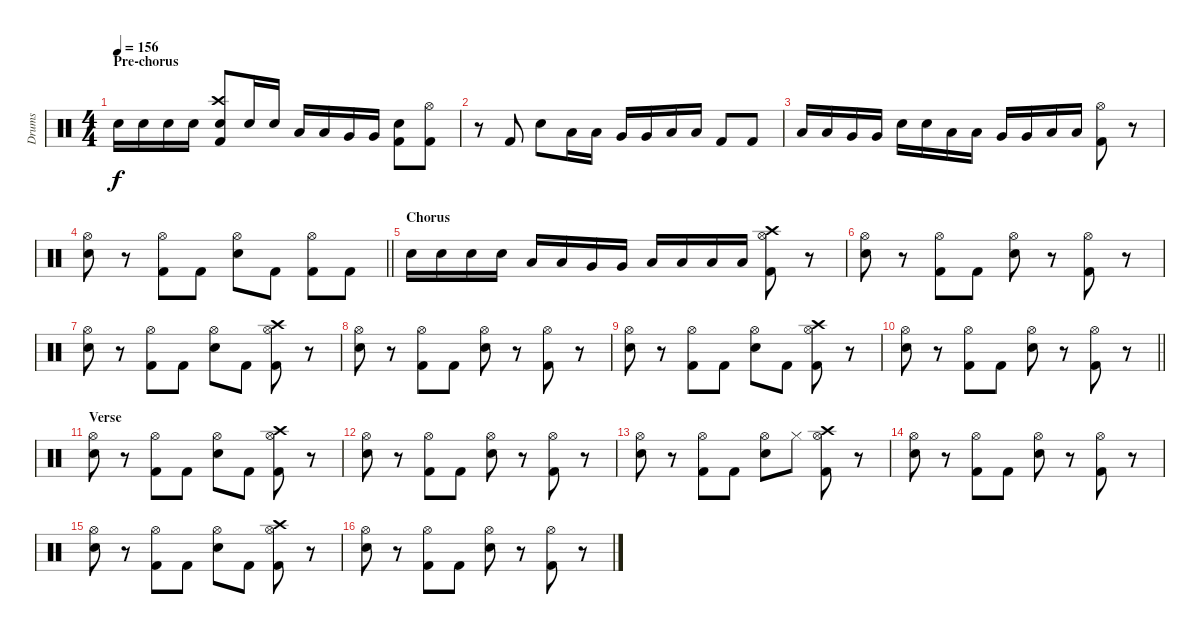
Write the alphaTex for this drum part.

\track ("Drums" "Drums") {instrument percussion}
\staff {score}
\articulation defaults
\ts (4 4)
\section ("" "Pre-chorus")
\tempo 156
\clef neutral
\ks c "Electric Snare (hit)".16{dy f} "Electric Snare (hit)".16 "Electric Snare (hit)".16 "Electric Snare (hit)".16
("Crash high (hit)" "Electric Snare (hit)" "Kick (hit) 2").8 "Electric Snare (hit)".16 "Electric Snare (hit)".16 "Low Tom (hit)".16 "Low Tom (hit)".16 "Very Low Tom (hit)".16 "Very Low Tom (hit)".16 ("Electric Snare (hit)" "Kick (hit) 2").8 ("Hi-Hat (open)" "Kick (hit) 2").8 |
r.8 "Kick (hit) 2".8 "Electric Snare (hit)".8 "Low Tom (hit)".16 "Low Tom (hit)".16 "Very Low Tom (hit)".16 "Very Low Tom (hit)".16 "Low Floor Tom (hit)".16 "Low Floor Tom (hit)".16 "Kick (hit) 2".8 "Kick (hit) 2".8 |
"Low Floor Tom (hit)".16 "Low Floor Tom (hit)".16 "Very Low Tom (hit)".16 "Very Low Tom (hit)".16 "Electric Snare (hit)".16 "Electric Snare (hit)".16 "Low Tom (hit)".16 "Low Tom (hit)".16 "Very Low Tom (hit)".16 "Very Low Tom (hit)".16 "Low Floor Tom (hit)".16 "Low Floor Tom (hit)".16 ("Hi-Hat (open)" "Kick (hit) 2").8 r.8 |
\barLineRight lightlight
("Hi-Hat (open)" "Electric Snare (hit)").8 r.8 ("Hi-Hat (open)" "Kick (hit) 2").8 "Kick (hit) 2".8 ("Hi-Hat (open)" "Electric Snare (hit)").8 "Kick (hit) 2".8 ("Hi-Hat (open)" "Kick (hit) 2").8 "Kick (hit) 2".8 |
\section ("" "Chorus")
"Electric Snare (hit)".16 "Electric Snare (hit)".16 "Electric Snare (hit)".16 "Electric Snare (hit)".16 "Low Tom (hit)".16 "Low Tom (hit)".16 "Very Low Tom (hit)".16 "Very Low Tom (hit)".16 "Low Floor Tom (hit)".16 "Low Floor Tom (hit)".16 "Low Floor Tom (hit)".16 "Low Floor Tom (hit)".16 ("Crash high (hit)" "Hi-Hat (open)" "Kick (hit) 2").8 r.8 |
("Hi-Hat (open)" "Electric Snare (hit)").8 r.8 ("Hi-Hat (open)" "Kick (hit) 2").8 "Kick (hit) 2".8 ("Hi-Hat (open)" "Electric Snare (hit)").8 r.8 ("Hi-Hat (open)" "Kick (hit) 2").8 r.8 |
("Hi-Hat (open)" "Electric Snare (hit)").8 r.8 ("Hi-Hat (open)" "Kick (hit) 2").8 "Kick (hit) 2".8 ("Hi-Hat (open)" "Electric Snare (hit)").8 "Kick (hit) 2".8 ("Crash high (hit)" "Hi-Hat (open)" "Kick (hit) 2").8 r.8 |
("Hi-Hat (open)" "Electric Snare (hit)").8 r.8 ("Hi-Hat (open)" "Kick (hit) 2").8 "Kick (hit) 2".8 ("Hi-Hat (open)" "Electric Snare (hit)").8 r.8 ("Hi-Hat (open)" "Kick (hit) 2").8 r.8 |
("Hi-Hat (open)" "Electric Snare (hit)").8 r.8 ("Hi-Hat (open)" "Kick (hit) 2").8 "Kick (hit) 2".8 ("Hi-Hat (open)" "Electric Snare (hit)").8 "Kick (hit) 2".8 ("Crash high (hit)" "Hi-Hat (open)" "Kick (hit) 2").8 r.8 |
\barLineRight lightlight
("Hi-Hat (open)" "Electric Snare (hit)").8 r.8 ("Hi-Hat (open)" "Kick (hit) 2").8 "Kick (hit) 2".8 ("Hi-Hat (open)" "Electric Snare (hit)").8 r.8 ("Hi-Hat (open)" "Kick (hit) 2").8 r.8 |
\section ("" "Verse")
("Hi-Hat (open)" "Electric Snare (hit)").8 r.8 ("Hi-Hat (open)" "Kick (hit) 2").8 "Kick (hit) 2".8 ("Hi-Hat (open)" "Electric Snare (hit)").8 "Kick (hit) 2".8 ("Crash high (hit)" "Hi-Hat (open)" "Kick (hit) 2").8 r.8 |
("Hi-Hat (open)" "Electric Snare (hit)").8 r.8 ("Hi-Hat (open)" "Kick (hit) 2").8 "Kick (hit) 2".8 ("Hi-Hat (open)" "Electric Snare (hit)").8 r.8 ("Hi-Hat (open)" "Kick (hit) 2").8 r.8 |
("Hi-Hat (open)" "Electric Snare (hit)").8 r.8 ("Hi-Hat (open)" "Kick (hit) 2").8 "Kick (hit) 2".8 ("Hi-Hat (open)" "Electric Snare (hit)").8 "Hi-Hat (closed)".8 ("Crash high (hit)" "Hi-Hat (open)" "Kick (hit) 2").8 r.8 |
("Hi-Hat (open)" "Electric Snare (hit)").8 r.8 ("Hi-Hat (open)" "Kick (hit) 2").8 "Kick (hit) 2".8 ("Hi-Hat (open)" "Electric Snare (hit)").8 r.8 ("Hi-Hat (open)" "Kick (hit) 2").8 r.8 |
("Hi-Hat (open)" "Electric Snare (hit)").8 r.8 ("Hi-Hat (open)" "Kick (hit) 2").8 "Kick (hit) 2".8 ("Hi-Hat (open)" "Electric Snare (hit)").8 "Kick (hit) 2".8 ("Crash high (hit)" "Hi-Hat (open)" "Kick (hit) 2").8 r.8 |
("Hi-Hat (open)" "Electric Snare (hit)").8 r.8 ("Hi-Hat (open)" "Kick (hit) 2").8 "Kick (hit) 2".8 ("Hi-Hat (open)" "Electric Snare (hit)").8 r.8 ("Hi-Hat (open)" "Kick (hit) 2").8 r.8
